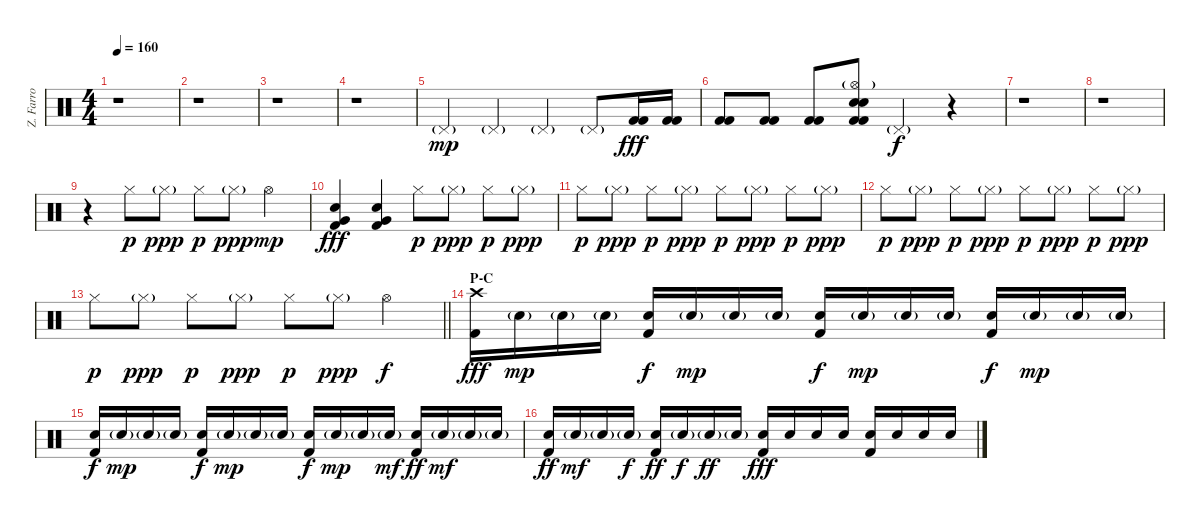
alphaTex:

\track ("Z. Farro" "Z. Farro") {instrument percussion}
\staff {score}
\articulation defaults
\ts (4 4)
\tempo 160
\clef neutral
\ks c
r.1{dy mp} |
r.1 |
r.1 |
r.1 |
"Pedal Hi-Hat (hit)"{g}.4 "Pedal Hi-Hat (hit)"{g}.4 "Pedal Hi-Hat (hit)"{g}.4 "Pedal Hi-Hat (hit)"{g}.8 ("Kick (hit) 2" "Kick (hit) 2").16{dy fff} ("Kick (hit) 2" "Kick (hit) 2").16 |
("Kick (hit) 2" "Kick (hit) 2").8 ("Kick (hit) 2" "Kick (hit) 2").8 ("Kick (hit) 2" "Kick (hit) 2").8 ("Hi-Hat (open)"{g} "Electric Snare (hit)" "Electric Snare (hit)" "Kick (hit) 2" "Kick (hit) 2").8 "Pedal Hi-Hat (hit)"{g}.4{dy f} r.4 |
r.1 |
r.1 |
r.4 "Hi-Hat (closed)".8{dy p} "Hi-Hat (closed)"{g}.8{dy ppp} "Hi-Hat (closed)".8{dy p} "Hi-Hat (closed)"{g}.8{dy ppp} "Hi-Hat (open)".4{dy mp} |
("Electric Snare (hit)" "Very Low Tom (hit)" "Kick (hit) 2").4{dy fff} ("Electric Snare (hit)" "Very Low Tom (hit)" "Kick (hit) 2").4 "Hi-Hat (closed)".8{dy p} "Hi-Hat (closed)"{g}.8{dy ppp} "Hi-Hat (closed)".8{dy p} "Hi-Hat (closed)"{g}.8{dy ppp} |
"Hi-Hat (closed)".8{dy p} "Hi-Hat (closed)"{g}.8{dy ppp} "Hi-Hat (closed)".8{dy p} "Hi-Hat (closed)"{g}.8{dy ppp} "Hi-Hat (closed)".8{dy p} "Hi-Hat (closed)"{g}.8{dy ppp} "Hi-Hat (closed)".8{dy p} "Hi-Hat (closed)"{g}.8{dy ppp} |
"Hi-Hat (closed)".8{dy p} "Hi-Hat (closed)"{g}.8{dy ppp} "Hi-Hat (closed)".8{dy p} "Hi-Hat (closed)"{g}.8{dy ppp} "Hi-Hat (closed)".8{dy p} "Hi-Hat (closed)"{g}.8{dy ppp} "Hi-Hat (closed)".8{dy p} "Hi-Hat (closed)"{g}.8{dy ppp} |
\barLineRight lightlight "Hi-Hat (closed)".8{dy p} "Hi-Hat (closed)"{g}.8{dy ppp} "Hi-Hat (closed)".8{dy p} "Hi-Hat (closed)"{g}.8{dy ppp} "Hi-Hat (closed)".8{dy p} "Hi-Hat (closed)"{g}.8{dy ppp} "Hi-Hat (open)".4{dy f}
|
\section ("" "P-C")
("Crash high (hit)" "Kick (hit) 2").16{dy fff} "Electric Snare (hit)"{g}.16{dy mp} "Electric Snare (hit)"{g}.16 "Electric Snare (hit)"{g}.16 ("Electric Snare (hit)" "Kick (hit) 2").16{dy f} "Electric Snare (hit)"{g}.16{dy mp} "Electric Snare (hit)"{g}.16 "Electric Snare (hit)"{g}.16 ("Electric Snare (hit)" "Kick (hit) 2").16{dy f} "Electric Snare (hit)"{g}.16{dy mp} "Electric Snare (hit)"{g}.16 "Electric Snare (hit)"{g}.16 ("Electric Snare (hit)" "Kick (hit) 2").16{dy f} "Electric Snare (hit)"{g}.16{dy mp} "Electric Snare (hit)"{g}.16 "Electric Snare (hit)"{g}.16 |
("Electric Snare (hit)" "Kick (hit) 2").16{dy f} "Electric Snare (hit)"{g}.16{dy mp} "Electric Snare (hit)"{g}.16 "Electric Snare (hit)"{g}.16 ("Electric Snare (hit)" "Kick (hit) 2").16{dy f} "Electric Snare (hit)"{g}.16{dy mp} "Electric Snare (hit)"{g}.16 "Electric Snare (hit)"{g}.16 ("Electric Snare (hit)" "Kick (hit) 2").16{dy f} "Electric Snare (hit)"{g}.16{dy mp} "Electric Snare (hit)"{g}.16 "Electric Snare (hit)"{g}.16{dy mf} ("Electric Snare (hit)" "Kick (hit) 2").16{dy ff} "Electric Snare (hit)"{g}.16{dy mf} "Electric Snare (hit)"{g}.16 "Electric Snare (hit)"{g}.16 |
("Electric Snare (hit)" "Kick (hit) 2").16{dy ff} "Electric Snare (hit)"{g}.16{dy mf} "Electric Snare (hit)"{g}.16 "Electric Snare (hit)"{g}.16{dy f} ("Electric Snare (hit)" "Kick (hit) 2").16{dy ff} "Electric Snare (hit)"{g}.16{dy f} "Electric Snare (hit)"{g}.16{dy ff} "Electric Snare (hit)"{g}.16 ("Electric Snare (hit)" "Kick (hit) 2").16{dy fff} "Electric Snare (hit)".16 "Electric Snare (hit)".16 "Electric Snare (hit)".16 ("Electric Snare (hit)" "Kick (hit) 2").16 "Electric Snare (hit)".16 "Electric Snare (hit)".16 "Electric Snare (hit)".16
